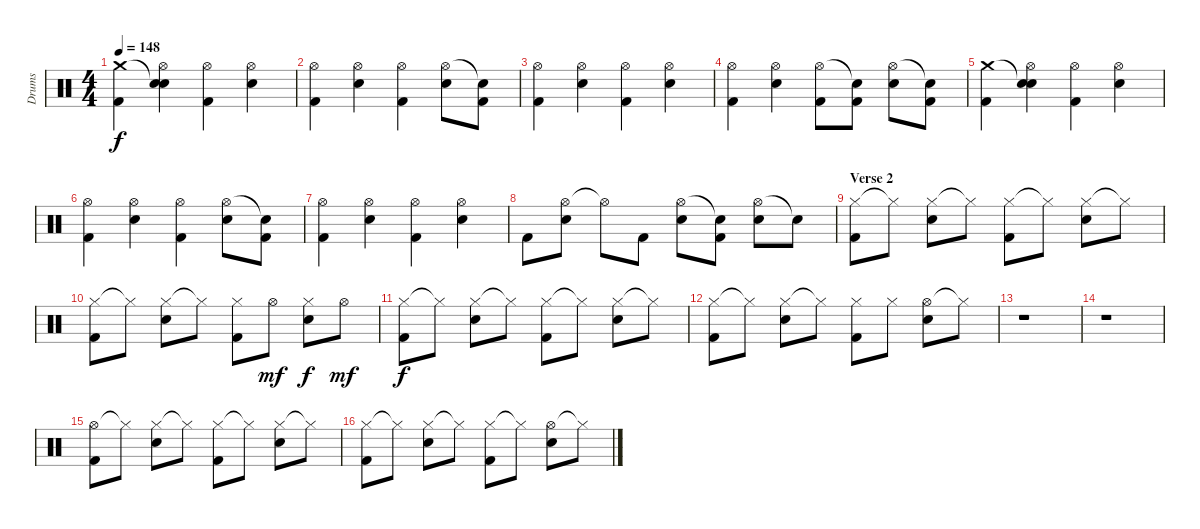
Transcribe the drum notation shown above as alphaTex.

\track ("Drums" "Drums") {instrument percussion}
\staff {score}
\articulation defaults
\ts (4 4)
\tempo 148
\clef neutral
\ks c
("Crash medium (hit)" "Kick (hit) 2").4{dy f} ("Snare (hit)"{t} "Hi-Hat (open)" "Electric Snare (hit)").4 ("Hi-Hat (open)" "Kick (hit) 2").4 ("Hi-Hat (open)" "Electric Snare (hit)").4 |
("Hi-Hat (open)" "Kick (hit) 2").4 ("Hi-Hat (open)" "Electric Snare (hit)").4 ("Hi-Hat (open)" "Kick (hit) 2").4 ("Hi-Hat (open)" "Electric Snare (hit)").8 ("Snare (hit)"{t} "Kick (hit) 2").8 |
("Hi-Hat (open)" "Kick (hit) 2").4 ("Hi-Hat (open)" "Electric Snare (hit)").4 ("Hi-Hat (open)" "Kick (hit) 2").4 ("Hi-Hat (open)" "Electric Snare (hit)").4 |
("Hi-Hat (open)" "Kick (hit) 2").4 ("Hi-Hat (open)" "Electric Snare (hit)").4 ("Hi-Hat (open)" "Kick (hit) 2").8 ("Snare (hit)"{t} "Kick (hit) 2").8 ("Hi-Hat (open)" "Electric Snare (hit)").8 ("Snare (hit)"{t} "Kick (hit) 2").8 |
("Crash medium (hit)" "Kick (hit) 2").4 ("Snare (hit)"{t} "Hi-Hat (open)" "Electric Snare (hit)").4 ("Hi-Hat (open)" "Kick (hit) 2").4 ("Hi-Hat (open)" "Electric Snare (hit)").4 |
("Hi-Hat (open)" "Kick (hit) 2").4 ("Hi-Hat (open)" "Electric Snare (hit)").4 ("Hi-Hat (open)" "Kick (hit) 2").4 ("Hi-Hat (open)" "Electric Snare (hit)").8 ("Snare (hit)"{t} "Kick (hit) 2").8 |
("Hi-Hat (open)" "Kick (hit) 2").4 ("Hi-Hat (open)" "Electric Snare (hit)").4 ("Hi-Hat (open)" "Kick (hit) 2").4 ("Hi-Hat (open)" "Electric Snare (hit)").4 |
"Kick (hit) 2".8 ("Hi-Hat (open)" "Electric Snare (hit)").8 "Hi-Hat (open)"{t}.8 "Kick (hit) 2".8 ("Hi-Hat (open)" "Electric Snare (hit)").8 ("Snare (hit)"{t} "Kick (hit) 2").8 ("Hi-Hat (open)" "Electric Snare (hit)").8 "Snare (hit)"{t}.8 |
\section ("" "Verse 2")
("Hi-Hat (closed)" "Kick (hit) 2").8 "Hi-Hat (closed)"{t}.8 ("Hi-Hat (closed)" "Electric Snare (hit)").8 "Hi-Hat (closed)"{t}.8 ("Hi-Hat (closed)" "Kick (hit) 2").8 "Hi-Hat (closed)"{t}.8 ("Hi-Hat (closed)" "Electric Snare (hit)").8 "Hi-Hat (closed)"{t}.8 |
("Hi-Hat (closed)" "Kick (hit) 2").8 "Hi-Hat (closed)"{t}.8 ("Hi-Hat (closed)" "Electric Snare (hit)").8 "Hi-Hat (closed)"{t}.8 ("Hi-Hat (closed)" "Kick (hit) 2").8 "Hi-Hat (open)".8{dy mf} ("Hi-Hat (closed)" "Electric Snare (hit)").8{dy f} "Hi-Hat (open)".8{dy mf} |
("Hi-Hat (closed)" "Kick (hit) 2").8{dy f} "Hi-Hat (closed)"{t}.8 ("Hi-Hat (closed)" "Electric Snare (hit)").8 "Hi-Hat (closed)"{t}.8 ("Hi-Hat (closed)" "Kick (hit) 2").8 "Hi-Hat (closed)"{t}.8 ("Hi-Hat (closed)" "Electric Snare (hit)").8 "Hi-Hat (closed)"{t}.8 |
("Hi-Hat (closed)" "Kick (hit) 2").8 "Hi-Hat (closed)"{t}.8 ("Hi-Hat (closed)" "Electric Snare (hit)").8 "Hi-Hat (closed)"{t}.8 ("Hi-Hat (closed)" "Kick (hit) 2").8 "Hi-Hat (closed)".8 ("Hi-Hat (open)" "Electric Snare (hit)").8 "Hi-Hat (closed)"{t}.8 |
r.1 |
r.1 |
("Hi-Hat (open)" "Kick (hit) 2").8 "Hi-Hat (closed)"{t}.8 ("Hi-Hat (closed)" "Electric Snare (hit)").8 "Hi-Hat (closed)"{t}.8 ("Hi-Hat (closed)" "Kick (hit) 2").8 "Hi-Hat (closed)"{t}.8 ("Hi-Hat (closed)" "Electric Snare (hit)").8 "Hi-Hat (closed)"{t}.8 |
("Hi-Hat (closed)" "Kick (hit) 2").8 "Hi-Hat (closed)"{t}.8 ("Hi-Hat (closed)" "Electric Snare (hit)").8 "Hi-Hat (closed)"{t}.8 ("Hi-Hat (closed)" "Kick (hit) 2").8 "Hi-Hat (closed)"{t}.8 ("Hi-Hat (open)" "Electric Snare (hit)").8 "Hi-Hat (closed)"{t}.8
